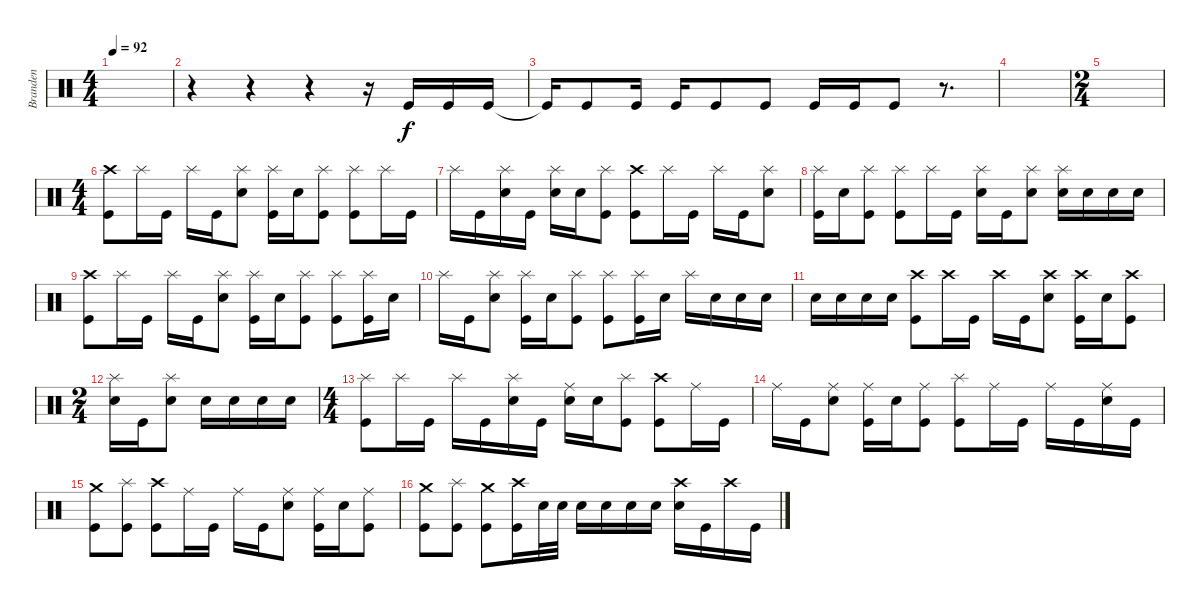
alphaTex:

\track ("Branden" "Branden") {instrument percussion}
\staff {score}
\articulation defaults
\ts (4 4)
\tempo 92
\clef neutral
\ks c
|
r.4 r.4 r.4 r.16 "Kick (hit)".16{volume 10 balance 14} "Kick (hit)".16 "Kick (hit)".16 |
"Kick (hit)"{t}.16 "Kick (hit)".8 "Kick (hit)".16 "Kick (hit)".16 "Kick (hit)".8 "Kick (hit)".8 "Kick (hit)".16 "Kick (hit)".16 "Kick (hit)".8 r.8{d} |
|
\ts (2 4)
|
\ts (4 4)
("Crash high (hit)" "Kick (hit)").8{volume 16 balance 8} "Splash (hit)".16 "Kick (hit)".16 "Splash (hit)".16 "Kick (hit)".16 ("Splash (hit)" "Snare (hit) 2").8 ("Splash (hit)" "Kick (hit)").16 "Snare (hit) 2".16 ("Splash (hit)" "Kick (hit)").8 ("Splash (hit)" "Kick (hit)").8 "Splash (hit)".16 "Kick (hit)".16 |
"Splash (hit)".16 "Kick (hit)".16 ("Splash (hit)" "Snare (hit) 2").16 "Kick (hit)".16 ("Splash (hit)" "Snare (hit) 2").16 "Snare (hit) 2".16 ("Splash (hit)" "Kick (hit)").8 ("Crash high (hit)" "Kick (hit)").8 "Splash (hit)".16 "Kick (hit)".16 "Splash (hit)".16 "Kick (hit)".16 ("Splash (hit)" "Snare (hit) 2").8 |
("Splash (hit)" "Kick (hit)").16 "Snare (hit) 2".16 ("Splash (hit)" "Kick (hit)").8 ("Splash (hit)" "Kick (hit)").8 "Splash (hit)".16 "Kick (hit)".16 ("Splash (hit)" "Snare (hit) 2").16 "Kick (hit)".16 ("Splash (hit)" "Snare (hit) 2").8 ("Splash (hit)" "Snare (hit) 2").16 "Snare (hit) 2".16 "Snare (hit) 2".16 "Snare (hit) 2".16 |
("Crash high (hit)" "Kick (hit)").8 "Splash (hit)".16 "Kick (hit)".16 "Splash (hit)".16 "Kick (hit)".16 ("Splash (hit)" "Snare (hit) 2").8 ("Splash (hit)" "Kick (hit)").16 "Snare (hit) 2".16 ("Splash (hit)" "Kick (hit)").8 ("Splash (hit)" "Kick (hit)").8 ("Splash (hit)" "Kick (hit)").16 "Snare (hit) 2".16 |
"Splash (hit)".16 "Kick (hit)".16 ("Splash (hit)" "Snare (hit) 2").8 ("Splash (hit)" "Kick (hit)").16 "Snare (hit) 2".16 ("Splash (hit)" "Kick (hit)").8 ("Splash (hit)" "Kick (hit)").8 ("Splash (hit)" "Kick (hit)").16 "Snare (hit) 2".16 "Splash (hit)".16 "Snare (hit) 2".16 "Snare (hit) 2".16 "Snare (hit) 2".16 |
"Snare (hit) 2".16 "Snare (hit) 2".16 "Snare (hit) 2".16 "Snare (hit) 2".16 ("Crash high (hit)" "Kick (hit)").8 "Crash high (hit)".16 "Kick (hit)".16 "Crash high (hit)".16 "Kick (hit)".16 ("Crash high (hit)" "Snare (hit) 2").8 ("Crash high (hit)" "Kick (hit)").16 "Snare (hit) 2".16 ("Crash high (hit)" "Kick (hit)").8 |
\ts (2 4)
("Splash (hit)" "Snare (hit) 2").16 "Kick (hit)".16 ("Splash (hit)" "Snare (hit) 2").8 "Snare (hit) 2".16 "Snare (hit) 2".16 "Snare (hit) 2".16 "Snare (hit) 2".16 |
\ts (4 4)
("Splash (hit)" "Kick (hit)").8 "Splash (hit)".16 "Kick (hit)".16 "Splash (hit)".16 "Kick (hit)".16 ("Splash (hit)" "Snare (hit) 2").16 "Kick (hit)".16 ("Ride (middle)" "Snare (hit) 2").16 "Snare (hit) 2".16 ("Splash (hit)" "Kick (hit)").8 ("Crash high (hit)" "Kick (hit)").8 "Ride (middle)".16 "Kick (hit)".16 |
"Ride (middle)".16 "Kick (hit)".16 ("Ride (middle)" "Snare (hit) 2").8 ("Ride (middle)" "Kick (hit)").16 "Snare (hit) 2".16 ("Ride (middle)" "Kick (hit)").8 ("Splash (hit)" "Kick (hit)").8 "Ride (middle)".16 "Kick (hit)".16 "Ride (middle)".16 "Kick (hit)".16 ("Ride (middle)" "Snare (hit) 2").16 "Kick (hit)".16 |
("Crash medium (hit)" "Kick (hit)").8 ("Splash (hit)" "Kick (hit)").8 ("Crash high (hit)" "Kick (hit)").8 "Ride (middle)".16 "Kick (hit)".16 "Ride (middle)".16 "Kick (hit)".16 ("Ride (middle)" "Snare (hit) 2").8 ("Ride (middle)" "Kick (hit)").16 "Snare (hit) 2".16 ("Ride (middle)" "Kick (hit)").8 |
("Crash medium (hit)" "Kick (hit)").8 ("Splash (hit)" "Kick (hit)").8 ("Crash medium (hit)" "Kick (hit)").8 ("Crash high (hit)" "Kick (hit)").16 "Snare (hit) 2".32 "Snare (hit) 2".32 "Snare (hit) 2".16 "Snare (hit) 2".16 "Snare (hit) 2".16 "Snare (hit) 2".16 ("Crash high (hit)" "Snare (hit) 2").16 "Kick (hit)".16 "Crash high (hit)".16 "Kick (hit)".16
